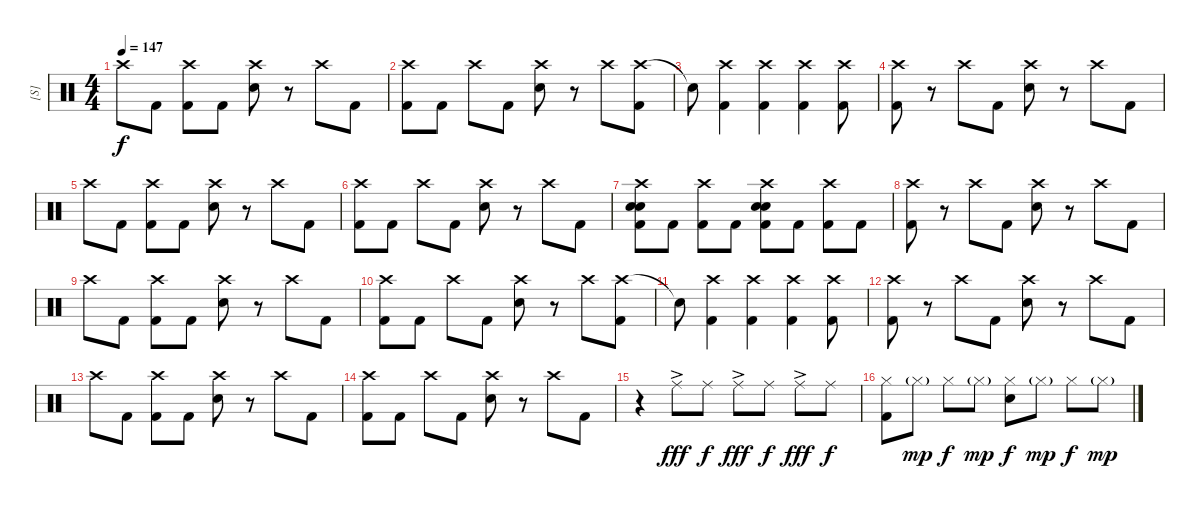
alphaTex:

\track ("[S]" "[S]") {instrument percussion}
\staff {score}
\articulation defaults
\ts (4 4)
\tempo 147
\clef neutral
\ks c "Crash high (hit)".8{dy f} "Kick (hit) 2".8
("Crash high (hit)" "Kick (hit) 2").8 "Kick (hit) 2".8 ("Crash high (hit)" "Electric Snare (hit)").8 r.8 "Crash high (hit)".8 "Kick (hit) 2".8 |
("Crash high (hit)" "Kick (hit) 2").8 "Kick (hit) 2".8 "Crash high (hit)".8 "Kick (hit) 2".8 ("Crash high (hit)" "Electric Snare (hit)").8 r.8 "Crash high (hit)".8 ("Crash high (hit)" "Kick (hit) 2").8 |
"Snare (hit)"{t}.8 ("Crash high (hit)" "Kick (hit) 2").4 ("Crash high (hit)" "Kick (hit) 2").4 ("Crash high (hit)" "Kick (hit) 2").4 ("Crash high (hit)" "Kick (hit) 2").8 |
("Crash high (hit)" "Kick (hit) 2").8 r.8 "Crash high (hit)".8 "Kick (hit) 2".8 ("Crash high (hit)" "Electric Snare (hit)").8 r.8 "Crash high (hit)".8 "Kick (hit) 2".8 |
"Crash high (hit)".8 "Kick (hit) 2".8 ("Crash high (hit)" "Kick (hit) 2").8 "Kick (hit) 2".8 ("Crash high (hit)" "Electric Snare (hit)").8 r.8 "Crash high (hit)".8 "Kick (hit) 2".8 |
("Crash high (hit)" "Kick (hit) 2").8 "Kick (hit) 2".8 "Crash high (hit)".8 "Kick (hit) 2".8 ("Crash high (hit)" "Electric Snare (hit)").8 r.8 "Crash high (hit)".8 "Kick (hit) 2".8 |
("Crash high (hit)" "Electric Snare (hit)" "Snare (hit) 2" "Kick (hit) 2").8 "Kick (hit) 2".8 ("Crash high (hit)" "Kick (hit) 2").8 "Kick (hit) 2".8 ("Crash high (hit)" "Electric Snare (hit)" "Snare (hit) 2" "Kick (hit) 2").8 "Kick (hit) 2".8 ("Crash high (hit)" "Kick (hit) 2").8 "Kick (hit) 2".8 |
("Crash high (hit)" "Kick (hit) 2").8 r.8 "Crash high (hit)".8 "Kick (hit) 2".8 ("Crash high (hit)" "Electric Snare (hit)").8 r.8 "Crash high (hit)".8 "Kick (hit) 2".8 |
"Crash high (hit)".8 "Kick (hit) 2".8 ("Crash high (hit)" "Kick (hit) 2").8 "Kick (hit) 2".8 ("Crash high (hit)" "Electric Snare (hit)").8 r.8 "Crash high (hit)".8 "Kick (hit) 2".8 |
("Crash high (hit)" "Kick (hit) 2").8 "Kick (hit) 2".8 "Crash high (hit)".8 "Kick (hit) 2".8 ("Crash high (hit)" "Electric Snare (hit)").8 r.8 "Crash high (hit)".8 ("Crash high (hit)" "Kick (hit) 2").8 |
"Snare (hit)"{t}.8 ("Crash high (hit)" "Kick (hit) 2").4 ("Crash high (hit)" "Kick (hit) 2").4 ("Crash high (hit)" "Kick (hit) 2").4 ("Crash high (hit)" "Kick (hit) 2").8 |
("Crash high (hit)" "Kick (hit) 2").8 r.8 "Crash high (hit)".8 "Kick (hit) 2".8 ("Crash high (hit)" "Electric Snare (hit)").8 r.8 "Crash high (hit)".8 "Kick (hit) 2".8 |
"Crash high (hit)".8 "Kick (hit) 2".8 ("Crash high (hit)" "Kick (hit) 2").8 "Kick (hit) 2".8 ("Crash high (hit)" "Electric Snare (hit)").8 r.8 "Crash high (hit)".8 "Kick (hit) 2".8 |
("Crash high (hit)" "Kick (hit) 2").8 "Kick (hit) 2".8 "Crash high (hit)".8 "Kick (hit) 2".8 ("Crash high (hit)" "Electric Snare (hit)").8 r.8 "Crash high (hit)".8 "Kick (hit) 2".8 |
r.4 "Ride (middle)"{ac}.8{dy fff} "Ride (middle)".8{dy f} "Ride (middle)"{ac}.8{dy fff} "Ride (middle)".8{dy f} "Ride (middle)"{ac}.8{dy fff} "Ride (middle)".8{dy f} |
("Hi-Hat (closed)" "Kick (hit) 2").8 "Hi-Hat (closed)"{g}.8{dy mp} "Hi-Hat (closed)".8{dy f} "Hi-Hat (closed)"{g}.8{dy mp} ("Hi-Hat (closed)" "Snare (hit) 2").8{dy f} "Hi-Hat (closed)"{g}.8{dy mp} "Hi-Hat (closed)".8{dy f} "Hi-Hat (closed)"{g}.8{dy mp}
